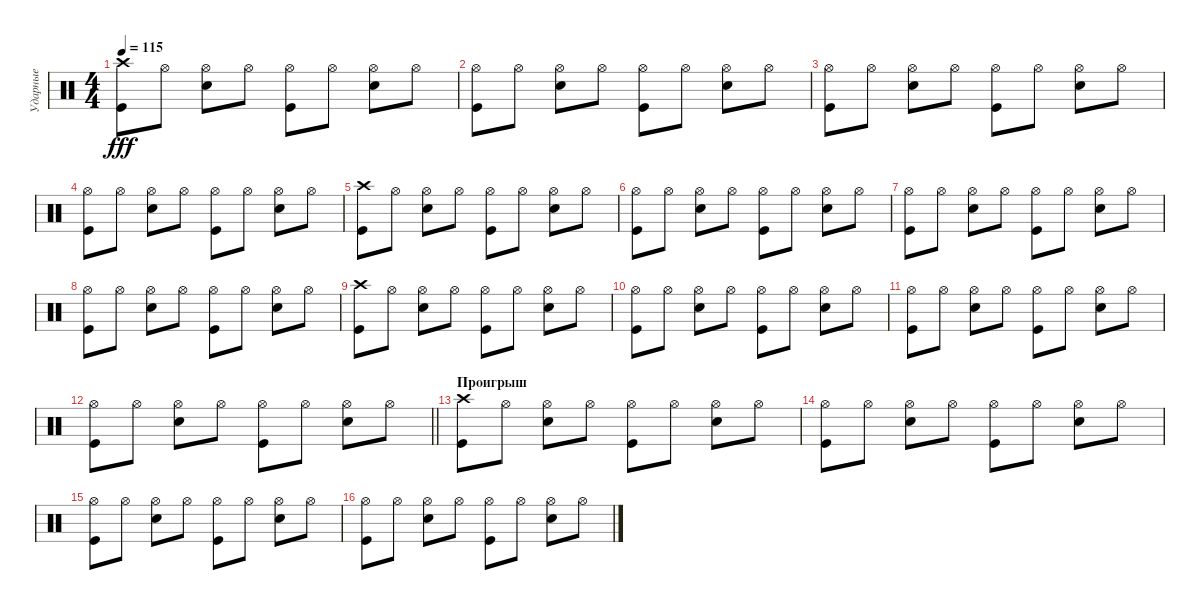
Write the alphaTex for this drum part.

\track ("Ударные" "Ударные") {instrument percussion}
\staff {score}
\articulation defaults
\ts (4 4)
\tempo 115
\clef neutral
\ks c
("Crash high (hit)" "Kick (hit)").8{dy fff} "Hi-Hat (open)".8 ("Hi-Hat (open)" "Electric Snare (hit)").8 "Hi-Hat (open)".8 ("Hi-Hat (open)" "Kick (hit)").8 "Hi-Hat (open)".8 ("Hi-Hat (open)" "Electric Snare (hit)").8 "Hi-Hat (open)".8 |
("Hi-Hat (open)" "Kick (hit)").8 "Hi-Hat (open)".8 ("Hi-Hat (open)" "Electric Snare (hit)").8 "Hi-Hat (open)".8 ("Hi-Hat (open)" "Kick (hit)").8 "Hi-Hat (open)".8 ("Hi-Hat (open)" "Electric Snare (hit)").8 "Hi-Hat (open)".8 |
("Hi-Hat (open)" "Kick (hit)").8 "Hi-Hat (open)".8 ("Hi-Hat (open)" "Electric Snare (hit)").8 "Hi-Hat (open)".8 ("Hi-Hat (open)" "Kick (hit)").8 "Hi-Hat (open)".8 ("Hi-Hat (open)" "Electric Snare (hit)").8 "Hi-Hat (open)".8 |
("Hi-Hat (open)" "Kick (hit)").8 "Hi-Hat (open)".8 ("Hi-Hat (open)" "Electric Snare (hit)").8 "Hi-Hat (open)".8 ("Hi-Hat (open)" "Kick (hit)").8 "Hi-Hat (open)".8 ("Hi-Hat (open)" "Electric Snare (hit)").8 "Hi-Hat (open)".8 |
("Crash high (hit)" "Kick (hit)").8 "Hi-Hat (open)".8 ("Hi-Hat (open)" "Electric Snare (hit)").8 "Hi-Hat (open)".8 ("Hi-Hat (open)" "Kick (hit)").8 "Hi-Hat (open)".8 ("Hi-Hat (open)" "Electric Snare (hit)").8 "Hi-Hat (open)".8 |
("Hi-Hat (open)" "Kick (hit)").8 "Hi-Hat (open)".8 ("Hi-Hat (open)" "Electric Snare (hit)").8 "Hi-Hat (open)".8 ("Hi-Hat (open)" "Kick (hit)").8 "Hi-Hat (open)".8 ("Hi-Hat (open)" "Electric Snare (hit)").8 "Hi-Hat (open)".8 |
("Hi-Hat (open)" "Kick (hit)").8 "Hi-Hat (open)".8 ("Hi-Hat (open)" "Electric Snare (hit)").8 "Hi-Hat (open)".8 ("Hi-Hat (open)" "Kick (hit)").8 "Hi-Hat (open)".8 ("Hi-Hat (open)" "Electric Snare (hit)").8 "Hi-Hat (open)".8 |
("Hi-Hat (open)" "Kick (hit)").8 "Hi-Hat (open)".8 ("Hi-Hat (open)" "Electric Snare (hit)").8 "Hi-Hat (open)".8 ("Hi-Hat (open)" "Kick (hit)").8 "Hi-Hat (open)".8 ("Hi-Hat (open)" "Electric Snare (hit)").8 "Hi-Hat (open)".8 |
("Crash high (hit)" "Kick (hit)").8 "Hi-Hat (open)".8 ("Hi-Hat (open)" "Electric Snare (hit)").8 "Hi-Hat (open)".8 ("Hi-Hat (open)" "Kick (hit)").8 "Hi-Hat (open)".8 ("Hi-Hat (open)" "Electric Snare (hit)").8 "Hi-Hat (open)".8 |
("Hi-Hat (open)" "Kick (hit)").8 "Hi-Hat (open)".8 ("Hi-Hat (open)" "Electric Snare (hit)").8 "Hi-Hat (open)".8 ("Hi-Hat (open)" "Kick (hit)").8 "Hi-Hat (open)".8 ("Hi-Hat (open)" "Electric Snare (hit)").8 "Hi-Hat (open)".8 |
("Hi-Hat (open)" "Kick (hit)").8 "Hi-Hat (open)".8 ("Hi-Hat (open)" "Electric Snare (hit)").8 "Hi-Hat (open)".8 ("Hi-Hat (open)" "Kick (hit)").8 "Hi-Hat (open)".8 ("Hi-Hat (open)" "Electric Snare (hit)").8 "Hi-Hat (open)".8 |
\barLineRight lightlight
("Hi-Hat (open)" "Kick (hit)").8 "Hi-Hat (open)".8 ("Hi-Hat (open)" "Electric Snare (hit)").8 "Hi-Hat (open)".8 ("Hi-Hat (open)" "Kick (hit)").8 "Hi-Hat (open)".8 ("Hi-Hat (open)" "Electric Snare (hit)").8 "Hi-Hat (open)".8 |
\section ("" "Проигрыш")
("Crash high (hit)" "Kick (hit)").8 "Hi-Hat (open)".8 ("Hi-Hat (open)" "Electric Snare (hit)").8 "Hi-Hat (open)".8 ("Hi-Hat (open)" "Kick (hit)").8 "Hi-Hat (open)".8 ("Hi-Hat (open)" "Electric Snare (hit)").8 "Hi-Hat (open)".8 |
("Hi-Hat (open)" "Kick (hit)").8 "Hi-Hat (open)".8 ("Hi-Hat (open)" "Electric Snare (hit)").8 "Hi-Hat (open)".8 ("Hi-Hat (open)" "Kick (hit)").8 "Hi-Hat (open)".8 ("Hi-Hat (open)" "Electric Snare (hit)").8 "Hi-Hat (open)".8 |
("Hi-Hat (open)" "Kick (hit)").8 "Hi-Hat (open)".8 ("Hi-Hat (open)" "Electric Snare (hit)").8 "Hi-Hat (open)".8 ("Hi-Hat (open)" "Kick (hit)").8 "Hi-Hat (open)".8 ("Hi-Hat (open)" "Electric Snare (hit)").8 "Hi-Hat (open)".8 |
("Hi-Hat (open)" "Kick (hit)").8 "Hi-Hat (open)".8 ("Hi-Hat (open)" "Electric Snare (hit)").8 "Hi-Hat (open)".8 ("Hi-Hat (open)" "Kick (hit)").8 "Hi-Hat (open)".8 ("Hi-Hat (open)" "Electric Snare (hit)").8 "Hi-Hat (open)".8
